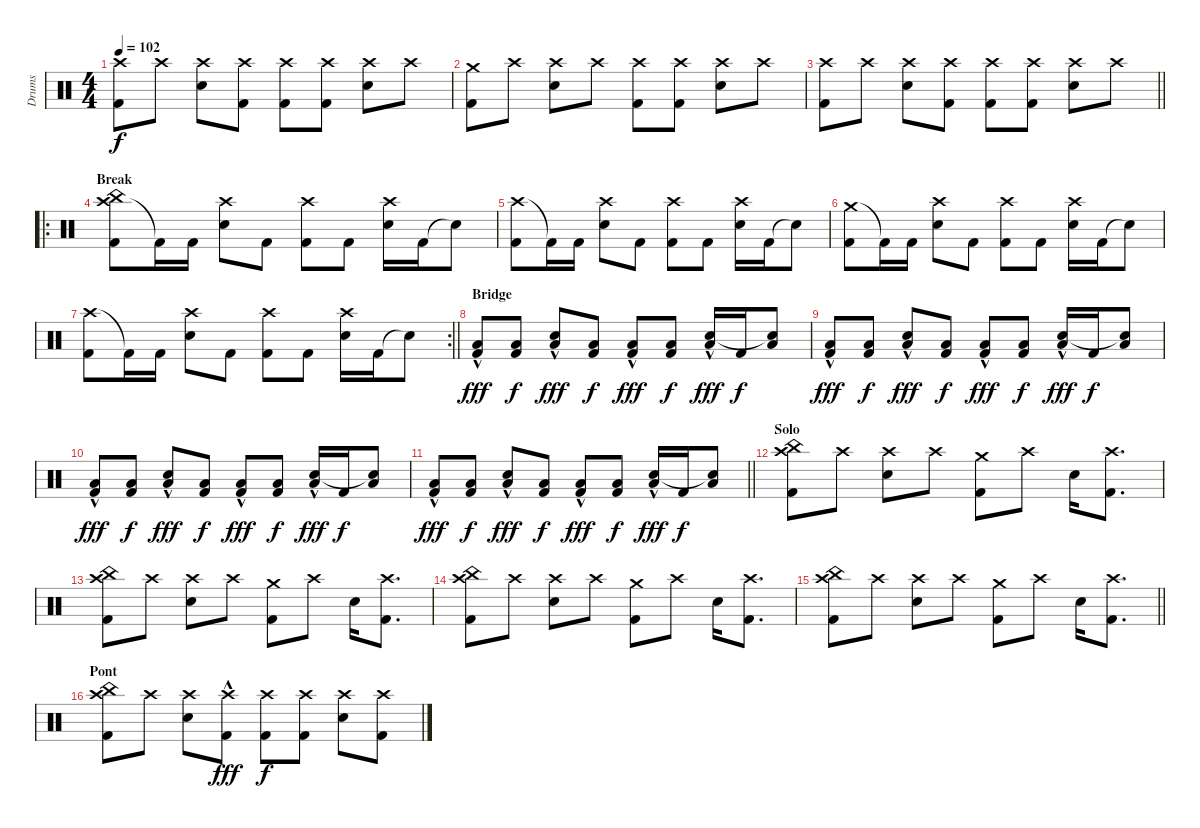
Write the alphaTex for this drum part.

\track ("Drums" "Drums") {instrument percussion}
\staff {score}
\articulation defaults
\ts (4 4)
\tempo 102
\clef neutral
\ks c
("Crash high (hit)" "Kick (hit) 2").8{dy f} "Crash high (hit)".8 ("Crash high (hit)" "Snare (hit) 2").8 ("Crash high (hit)" "Kick (hit) 2").8 ("Crash high (hit)" "Kick (hit) 2").8 ("Crash high (hit)" "Kick (hit) 2").8 ("Crash high (hit)" "Snare (hit) 2").8 "Crash high (hit)".8 |
("Crash medium (hit)" "Kick (hit) 2").8 "Crash high (hit)".8 ("Crash high (hit)" "Snare (hit) 2").8 "Crash high (hit)".8 ("Crash high (hit)" "Kick (hit) 2").8 ("Crash high (hit)" "Kick (hit) 2").8 ("Crash high (hit)" "Snare (hit) 2").8 "Crash high (hit)".8 |
\barLineRight lightlight
("Crash high (hit)" "Kick (hit) 2").8 "Crash high (hit)".8 ("Crash high (hit)" "Snare (hit) 2").8 ("Crash high (hit)" "Kick (hit) 2").8 ("Crash high (hit)" "Kick (hit) 2").8 ("Crash high (hit)" "Kick (hit) 2").8 ("Crash high (hit)" "Snare (hit) 2").8 "Crash high (hit)".8 |
\ro
\section ("" "Break")
("Crash high (hit)" "China (hit)" "Kick (hit) 2").8 "Kick (hit) 2"{t}.16 "Kick (hit) 2".16 ("Crash high (hit)" "Snare (hit) 2").8 "Kick (hit) 2".8 ("Crash high (hit)" "Kick (hit) 2").8 "Kick (hit) 2".8 ("Crash high (hit)" "Snare (hit) 2").16 "Kick (hit) 2".16 "Snare (hit)"{t}.8 |
("Crash high (hit)" "Kick (hit) 2").8 "Kick (hit) 2"{t}.16 "Kick (hit) 2".16 ("Crash high (hit)" "Snare (hit) 2").8 "Kick (hit) 2".8 ("Crash high (hit)" "Kick (hit) 2").8 "Kick (hit) 2".8 ("Crash high (hit)" "Snare (hit) 2").16 "Kick (hit) 2".16 "Snare (hit)"{t}.8 |
("Crash medium (hit)" "Kick (hit) 2").8 "Kick (hit) 2"{t}.16 "Kick (hit) 2".16 ("Crash high (hit)" "Snare (hit) 2").8 "Kick (hit) 2".8 ("Crash high (hit)" "Kick (hit) 2").8 "Kick (hit) 2".8 ("Crash high (hit)" "Snare (hit) 2").16 "Kick (hit) 2".16 "Snare (hit)"{t}.8 |
\rc 2
\barLineRight lightlight
("Crash high (hit)" "Kick (hit) 2").8 "Kick (hit) 2"{t}.16 "Kick (hit) 2".16 ("Crash high (hit)" "Snare (hit) 2").8 "Kick (hit) 2".8 ("Crash high (hit)" "Kick (hit) 2").8 "Kick (hit) 2".8 ("Crash high (hit)" "Snare (hit) 2").16 "Kick (hit) 2".16 "Snare (hit)"{t}.8 |
\section ("" "Bridge")
("Low Floor Tom (hit)"{hac} "Kick (hit) 2").8{dy fff} ("Low Floor Tom (hit)" "Kick (hit) 2").8{dy f} ("Low Floor Tom (hit)"{hac} "Snare (hit) 2").8{dy fff} ("Low Floor Tom (hit)" "Kick (hit) 2").8{dy f} ("Low Floor Tom (hit)"{hac} "Kick (hit) 2").8{dy fff} ("Low Floor Tom (hit)" "Kick (hit) 2").8{dy f} ("Low Floor Tom (hit)"{hac} "Snare (hit) 2").16{dy fff} "Kick (hit) 2".16{dy f} ("Low Floor Tom (hit)" "Snare (hit)"{t}).8 |
("Low Floor Tom (hit)"{hac} "Kick (hit) 2").8{dy fff} ("Low Floor Tom (hit)" "Kick (hit) 2").8{dy f} ("Low Floor Tom (hit)"{hac} "Snare (hit) 2").8{dy fff} ("Low Floor Tom (hit)" "Kick (hit) 2").8{dy f} ("Low Floor Tom (hit)"{hac} "Kick (hit) 2").8{dy fff} ("Low Floor Tom (hit)" "Kick (hit) 2").8{dy f} ("Low Floor Tom (hit)"{hac} "Snare (hit) 2").16{dy fff} "Kick (hit) 2".16{dy f} ("Low Floor Tom (hit)" "Snare (hit)"{t}).8 |
("Low Floor Tom (hit)"{hac} "Kick (hit) 2").8{dy fff} ("Low Floor Tom (hit)" "Kick (hit) 2").8{dy f} ("Low Floor Tom (hit)"{hac} "Snare (hit) 2").8{dy fff} ("Low Floor Tom (hit)" "Kick (hit) 2").8{dy f} ("Low Floor Tom (hit)"{hac} "Kick (hit) 2").8{dy fff} ("Low Floor Tom (hit)" "Kick (hit) 2").8{dy f} ("Low Floor Tom (hit)"{hac} "Snare (hit) 2").16{dy fff} "Kick (hit) 2".16{dy f} ("Low Floor Tom (hit)" "Snare (hit)"{t}).8 |
\barLineRight lightlight
("Low Floor Tom (hit)"{hac} "Kick (hit) 2").8{dy fff} ("Low Floor Tom (hit)" "Kick (hit) 2").8{dy f} ("Low Floor Tom (hit)"{hac} "Snare (hit) 2").8{dy fff} ("Low Floor Tom (hit)" "Kick (hit) 2").8{dy f} ("Low Floor Tom (hit)"{hac} "Kick (hit) 2").8{dy fff} ("Low Floor Tom (hit)" "Kick (hit) 2").8{dy f} ("Low Floor Tom (hit)"{hac} "Snare (hit) 2").16{dy fff} "Kick (hit) 2".16{dy f} ("Low Floor Tom (hit)" "Snare (hit)"{t}).8 |
\section ("" "Solo")
("Crash high (hit)" "China (hit)" "Kick (hit) 2").8 "Crash high (hit)".8 ("Crash high (hit)" "Snare (hit) 2").8 "Crash high (hit)".8 ("Crash medium (hit)" "Kick (hit) 2").8 "Crash high (hit)".8 "Snare (hit) 2".16 ("Crash high (hit)" "Kick (hit) 2").8{d} |
("Crash high (hit)" "China (hit)" "Kick (hit) 2").8 "Crash high (hit)".8 ("Crash high (hit)" "Snare (hit) 2").8 "Crash high (hit)".8 ("Crash medium (hit)" "Kick (hit) 2").8 "Crash high (hit)".8 "Snare (hit) 2".16 ("Crash high (hit)" "Kick (hit) 2").8{d} |
("Crash high (hit)" "China (hit)" "Kick (hit) 2").8 "Crash high (hit)".8 ("Crash high (hit)" "Snare (hit) 2").8 "Crash high (hit)".8 ("Crash medium (hit)" "Kick (hit) 2").8 "Crash high (hit)".8 "Snare (hit) 2".16 ("Crash high (hit)" "Kick (hit) 2").8{d} |
\barLineRight lightlight
("Crash high (hit)" "China (hit)" "Kick (hit) 2").8 "Crash high (hit)".8 ("Crash high (hit)" "Snare (hit) 2").8 "Crash high (hit)".8 ("Crash medium (hit)" "Kick (hit) 2").8 "Crash high (hit)".8 "Snare (hit) 2".16 ("Crash high (hit)" "Kick (hit) 2").8{d} |
\section ("" "Pont")
("Crash high (hit)" "China (hit)" "Kick (hit) 2").8 "Crash high (hit)".8 ("Crash high (hit)" "Snare (hit) 2").8 ("Crash high (hit)" "Kick (hit) 2"{hac}).8{dy fff} ("Crash high (hit)" "Kick (hit) 2").8{dy f} ("Crash high (hit)" "Kick (hit) 2").8 ("Crash high (hit)" "Snare (hit) 2").8 ("Crash high (hit)" "Kick (hit) 2").8
